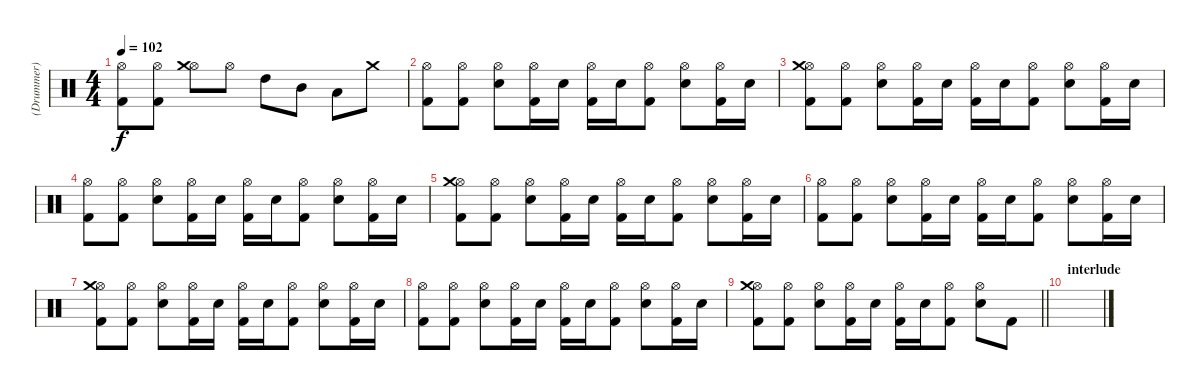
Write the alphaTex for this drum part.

\track ("(Drummer)" "(Drummer)") {solo instrument percussion}
\staff {score}
\articulation defaults
\ts (4 4)
\tempo 102
\clef neutral
\ks c
("Hi-Hat (open)" "Kick (hit) 2").8{dy f} ("Hi-Hat (open)" "Kick (hit) 2").8 ("Hi-Hat (open)" "Crash medium (hit)").8 "Hi-Hat (open)".8 "High Tom (hit)".8 "Mid Tom (hit)".8 "Low Tom (hit)".8 "Crash medium (hit)".8 |
("Hi-Hat (open)" "Kick (hit) 2").8 ("Hi-Hat (open)" "Kick (hit) 2").8 ("Hi-Hat (open)" "Electric Snare (hit)").8 ("Hi-Hat (open)" "Kick (hit) 2").16 "Electric Snare (hit)".16 ("Hi-Hat (open)" "Kick (hit) 2").16 "Electric Snare (hit)".16 ("Hi-Hat (open)" "Kick (hit) 2").8 ("Hi-Hat (open)" "Electric Snare (hit)").8 ("Hi-Hat (open)" "Kick (hit) 2").16 "Electric Snare (hit)".16 |
("Hi-Hat (open)" "Crash medium (hit)" "Kick (hit) 2").8 ("Hi-Hat (open)" "Kick (hit) 2").8 ("Hi-Hat (open)" "Electric Snare (hit)").8 ("Hi-Hat (open)" "Kick (hit) 2").16 "Electric Snare (hit)".16 ("Hi-Hat (open)" "Kick (hit) 2").16 "Electric Snare (hit)".16 ("Hi-Hat (open)" "Kick (hit) 2").8 ("Hi-Hat (open)" "Electric Snare (hit)").8 ("Hi-Hat (open)" "Kick (hit) 2").16 "Electric Snare (hit)".16 |
("Hi-Hat (open)" "Kick (hit) 2").8 ("Hi-Hat (open)" "Kick (hit) 2").8 ("Hi-Hat (open)" "Electric Snare (hit)").8 ("Hi-Hat (open)" "Kick (hit) 2").16 "Electric Snare (hit)".16 ("Hi-Hat (open)" "Kick (hit) 2").16 "Electric Snare (hit)".16 ("Hi-Hat (open)" "Kick (hit) 2").8 ("Hi-Hat (open)" "Electric Snare (hit)").8 ("Hi-Hat (open)" "Kick (hit) 2").16 "Electric Snare (hit)".16 |
("Hi-Hat (open)" "Crash medium (hit)" "Kick (hit) 2").8 ("Hi-Hat (open)" "Kick (hit) 2").8 ("Hi-Hat (open)" "Electric Snare (hit)").8 ("Hi-Hat (open)" "Kick (hit) 2").16 "Electric Snare (hit)".16 ("Hi-Hat (open)" "Kick (hit) 2").16 "Electric Snare (hit)".16 ("Hi-Hat (open)" "Kick (hit) 2").8 ("Hi-Hat (open)" "Electric Snare (hit)").8 ("Hi-Hat (open)" "Kick (hit) 2").16 "Electric Snare (hit)".16 |
("Hi-Hat (open)" "Kick (hit) 2").8 ("Hi-Hat (open)" "Kick (hit) 2").8 ("Hi-Hat (open)" "Electric Snare (hit)").8 ("Hi-Hat (open)" "Kick (hit) 2").16 "Electric Snare (hit)".16 ("Hi-Hat (open)" "Kick (hit) 2").16 "Electric Snare (hit)".16 ("Hi-Hat (open)" "Kick (hit) 2").8 ("Hi-Hat (open)" "Electric Snare (hit)").8 ("Hi-Hat (open)" "Kick (hit) 2").16 "Electric Snare (hit)".16 |
("Hi-Hat (open)" "Crash medium (hit)" "Kick (hit) 2").8 ("Hi-Hat (open)" "Kick (hit) 2").8 ("Hi-Hat (open)" "Electric Snare (hit)").8 ("Hi-Hat (open)" "Kick (hit) 2").16 "Electric Snare (hit)".16 ("Hi-Hat (open)" "Kick (hit) 2").16 "Electric Snare (hit)".16 ("Hi-Hat (open)" "Kick (hit) 2").8 ("Hi-Hat (open)" "Electric Snare (hit)").8 ("Hi-Hat (open)" "Kick (hit) 2").16 "Electric Snare (hit)".16 |
("Hi-Hat (open)" "Kick (hit) 2").8 ("Hi-Hat (open)" "Kick (hit) 2").8 ("Hi-Hat (open)" "Electric Snare (hit)").8 ("Hi-Hat (open)" "Kick (hit) 2").16 "Electric Snare (hit)".16 ("Hi-Hat (open)" "Kick (hit) 2").16 "Electric Snare (hit)".16 ("Hi-Hat (open)" "Kick (hit) 2").8 ("Hi-Hat (open)" "Electric Snare (hit)").8 ("Hi-Hat (open)" "Kick (hit) 2").16 "Electric Snare (hit)".16 |
\barLineRight lightlight
("Hi-Hat (open)" "Crash medium (hit)" "Kick (hit) 2").8 ("Hi-Hat (open)" "Kick (hit) 2").8 ("Hi-Hat (open)" "Electric Snare (hit)").8 ("Hi-Hat (open)" "Kick (hit) 2").16 "Electric Snare (hit)".16 ("Hi-Hat (open)" "Kick (hit) 2").16 "Electric Snare (hit)".16 ("Hi-Hat (open)" "Kick (hit) 2").8 ("Hi-Hat (open)" "Electric Snare (hit)").8 "Kick (hit) 2".8 |
\section ("" "interlude")
